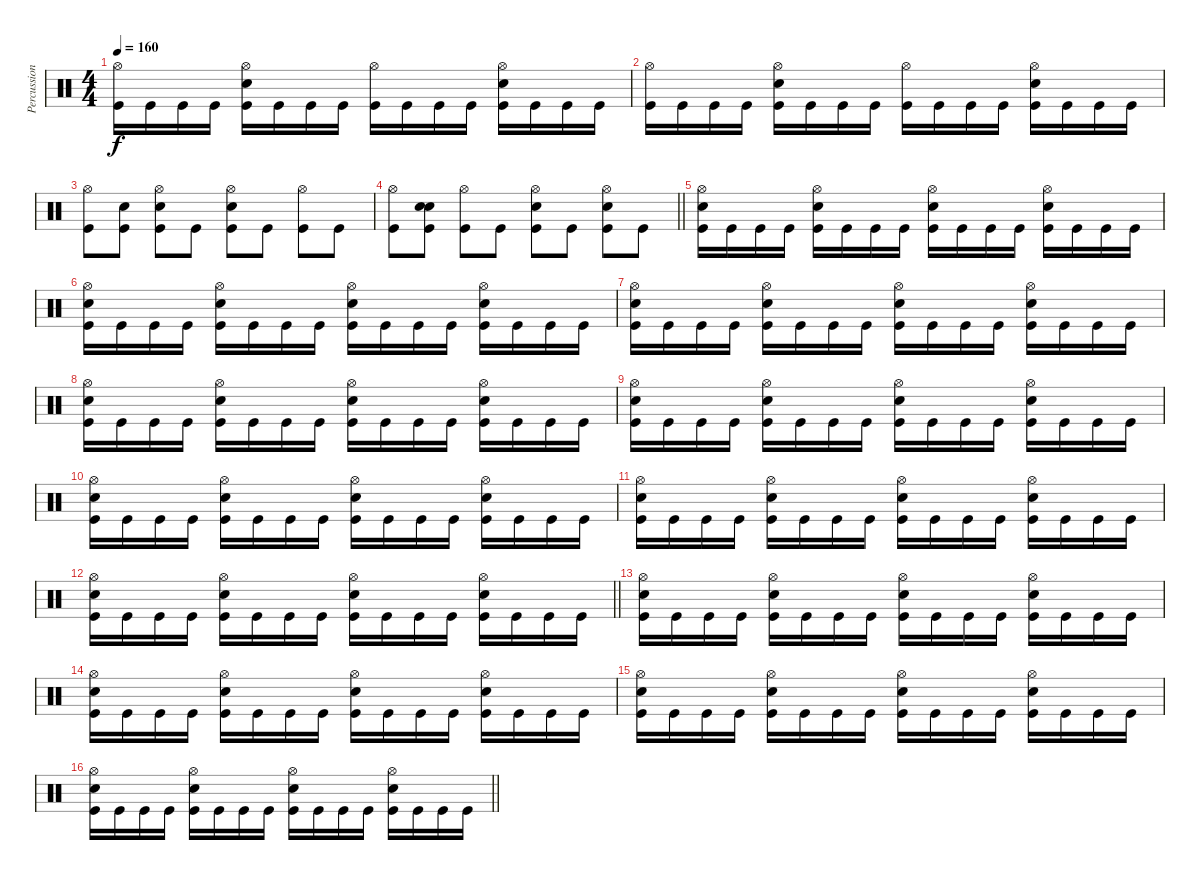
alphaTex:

\track ("Percussion" "Percussion") {instrument percussion}
\staff {score}
\articulation defaults
\ts (4 4)
\tempo 160
\clef neutral
\ks c
("Hi-Hat (open)" "Kick (hit)").16{dy f} "Kick (hit)".16 "Kick (hit)".16 "Kick (hit)".16 ("Hi-Hat (open)" "Snare (hit) 2" "Kick (hit)").16 "Kick (hit)".16 "Kick (hit)".16 "Kick (hit)".16 ("Hi-Hat (open)" "Kick (hit)").16 "Kick (hit)".16 "Kick (hit)".16 "Kick (hit)".16 ("Hi-Hat (open)" "Snare (hit) 2" "Kick (hit)").16 "Kick (hit)".16 "Kick (hit)".16 "Kick (hit)".16 |
("Hi-Hat (open)" "Kick (hit)").16 "Kick (hit)".16 "Kick (hit)".16 "Kick (hit)".16 ("Hi-Hat (open)" "Snare (hit) 2" "Kick (hit)").16 "Kick (hit)".16 "Kick (hit)".16 "Kick (hit)".16 ("Hi-Hat (open)" "Kick (hit)").16 "Kick (hit)".16 "Kick (hit)".16 "Kick (hit)".16 ("Hi-Hat (open)" "Snare (hit) 2" "Kick (hit)").16 "Kick (hit)".16 "Kick (hit)".16 "Kick (hit)".16 |
("Kick (hit)" "Hi-Hat (open)").8 ("Kick (hit)" "Snare (hit)").8 ("Kick (hit)" "Snare (hit) 2" "Hi-Hat (open)").8 "Kick (hit)".8 ("Kick (hit)" "Snare (hit) 2" "Hi-Hat (open)").8 "Kick (hit)".8 ("Kick (hit)" "Hi-Hat (open)").8 "Kick (hit)".8 |
\barLineRight lightlight
("Kick (hit)" "Hi-Hat (open)").8 ("Kick (hit)" "Snare (hit) 2" "Snare (hit)").8 ("Kick (hit)" "Hi-Hat (open)").8 "Kick (hit)".8 ("Kick (hit)" "Snare (hit) 2" "Hi-Hat (open)").8 "Kick (hit)".8 ("Kick (hit)" "Snare (hit) 2" "Hi-Hat (open)").8 "Kick (hit)".8 |
\section ("" "")
("Kick (hit)" "Snare (hit) 2" "Hi-Hat (open)").16 "Kick (hit)".16 "Kick (hit)".16 "Kick (hit)".16 ("Kick (hit)" "Snare (hit) 2" "Hi-Hat (open)").16 "Kick (hit)".16 "Kick (hit)".16 "Kick (hit)".16 ("Kick (hit)" "Snare (hit) 2" "Hi-Hat (open)").16 "Kick (hit)".16 "Kick (hit)".16 "Kick (hit)".16 ("Kick (hit)" "Snare (hit) 2" "Hi-Hat (open)").16 "Kick (hit)".16 "Kick (hit)".16 "Kick (hit)".16 |
("Kick (hit)" "Snare (hit) 2" "Hi-Hat (open)").16 "Kick (hit)".16 "Kick (hit)".16 "Kick (hit)".16 ("Kick (hit)" "Snare (hit) 2" "Hi-Hat (open)").16 "Kick (hit)".16 "Kick (hit)".16 "Kick (hit)".16 ("Kick (hit)" "Snare (hit) 2" "Hi-Hat (open)").16 "Kick (hit)".16 "Kick (hit)".16 "Kick (hit)".16 ("Kick (hit)" "Snare (hit) 2" "Hi-Hat (open)").16 "Kick (hit)".16 "Kick (hit)".16 "Kick (hit)".16 |
("Kick (hit)" "Snare (hit) 2" "Hi-Hat (open)").16 "Kick (hit)".16 "Kick (hit)".16 "Kick (hit)".16 ("Kick (hit)" "Snare (hit) 2" "Hi-Hat (open)").16 "Kick (hit)".16 "Kick (hit)".16 "Kick (hit)".16 ("Kick (hit)" "Snare (hit) 2" "Hi-Hat (open)").16 "Kick (hit)".16 "Kick (hit)".16 "Kick (hit)".16 ("Kick (hit)" "Snare (hit) 2" "Hi-Hat (open)").16 "Kick (hit)".16 "Kick (hit)".16 "Kick (hit)".16 |
("Kick (hit)" "Snare (hit) 2" "Hi-Hat (open)").16 "Kick (hit)".16 "Kick (hit)".16 "Kick (hit)".16 ("Kick (hit)" "Snare (hit) 2" "Hi-Hat (open)").16 "Kick (hit)".16 "Kick (hit)".16 "Kick (hit)".16 ("Kick (hit)" "Snare (hit) 2" "Hi-Hat (open)").16 "Kick (hit)".16 "Kick (hit)".16 "Kick (hit)".16 ("Kick (hit)" "Snare (hit) 2" "Hi-Hat (open)").16 "Kick (hit)".16 "Kick (hit)".16 "Kick (hit)".16 |
("Kick (hit)" "Snare (hit) 2" "Hi-Hat (open)").16 "Kick (hit)".16 "Kick (hit)".16 "Kick (hit)".16 ("Kick (hit)" "Snare (hit) 2" "Hi-Hat (open)").16 "Kick (hit)".16 "Kick (hit)".16 "Kick (hit)".16 ("Kick (hit)" "Snare (hit) 2" "Hi-Hat (open)").16 "Kick (hit)".16 "Kick (hit)".16 "Kick (hit)".16 ("Kick (hit)" "Snare (hit) 2" "Hi-Hat (open)").16 "Kick (hit)".16 "Kick (hit)".16 "Kick (hit)".16 |
("Kick (hit)" "Snare (hit) 2" "Hi-Hat (open)").16 "Kick (hit)".16 "Kick (hit)".16 "Kick (hit)".16 ("Kick (hit)" "Snare (hit) 2" "Hi-Hat (open)").16 "Kick (hit)".16 "Kick (hit)".16 "Kick (hit)".16 ("Kick (hit)" "Snare (hit) 2" "Hi-Hat (open)").16 "Kick (hit)".16 "Kick (hit)".16 "Kick (hit)".16 ("Kick (hit)" "Snare (hit) 2" "Hi-Hat (open)").16 "Kick (hit)".16 "Kick (hit)".16 "Kick (hit)".16 |
("Kick (hit)" "Snare (hit) 2" "Hi-Hat (open)").16 "Kick (hit)".16 "Kick (hit)".16 "Kick (hit)".16 ("Kick (hit)" "Snare (hit) 2" "Hi-Hat (open)").16 "Kick (hit)".16 "Kick (hit)".16 "Kick (hit)".16 ("Kick (hit)" "Snare (hit) 2" "Hi-Hat (open)").16 "Kick (hit)".16 "Kick (hit)".16 "Kick (hit)".16 ("Kick (hit)" "Snare (hit) 2" "Hi-Hat (open)").16 "Kick (hit)".16 "Kick (hit)".16 "Kick (hit)".16 |
\barLineRight lightlight
("Kick (hit)" "Snare (hit) 2" "Hi-Hat (open)").16 "Kick (hit)".16 "Kick (hit)".16 "Kick (hit)".16 ("Kick (hit)" "Snare (hit) 2" "Hi-Hat (open)").16 "Kick (hit)".16 "Kick (hit)".16 "Kick (hit)".16 ("Kick (hit)" "Snare (hit) 2" "Hi-Hat (open)").16 "Kick (hit)".16 "Kick (hit)".16 "Kick (hit)".16 ("Kick (hit)" "Snare (hit) 2" "Hi-Hat (open)").16 "Kick (hit)".16 "Kick (hit)".16 "Kick (hit)".16 |
("Kick (hit)" "Snare (hit) 2" "Hi-Hat (open)").16 "Kick (hit)".16 "Kick (hit)".16 "Kick (hit)".16 ("Kick (hit)" "Snare (hit) 2" "Hi-Hat (open)").16 "Kick (hit)".16 "Kick (hit)".16 "Kick (hit)".16 ("Kick (hit)" "Snare (hit) 2" "Hi-Hat (open)").16 "Kick (hit)".16 "Kick (hit)".16 "Kick (hit)".16 ("Kick (hit)" "Snare (hit) 2" "Hi-Hat (open)").16 "Kick (hit)".16 "Kick (hit)".16 "Kick (hit)".16 |
("Kick (hit)" "Snare (hit) 2" "Hi-Hat (open)").16 "Kick (hit)".16 "Kick (hit)".16 "Kick (hit)".16 ("Kick (hit)" "Snare (hit) 2" "Hi-Hat (open)").16 "Kick (hit)".16 "Kick (hit)".16 "Kick (hit)".16 ("Kick (hit)" "Snare (hit) 2" "Hi-Hat (open)").16 "Kick (hit)".16 "Kick (hit)".16 "Kick (hit)".16 ("Kick (hit)" "Snare (hit) 2" "Hi-Hat (open)").16 "Kick (hit)".16 "Kick (hit)".16 "Kick (hit)".16 |
("Kick (hit)" "Snare (hit) 2" "Hi-Hat (open)").16 "Kick (hit)".16 "Kick (hit)".16 "Kick (hit)".16 ("Kick (hit)" "Snare (hit) 2" "Hi-Hat (open)").16 "Kick (hit)".16 "Kick (hit)".16 "Kick (hit)".16 ("Kick (hit)" "Snare (hit) 2" "Hi-Hat (open)").16 "Kick (hit)".16 "Kick (hit)".16 "Kick (hit)".16 ("Kick (hit)" "Snare (hit) 2" "Hi-Hat (open)").16 "Kick (hit)".16 "Kick (hit)".16 "Kick (hit)".16 |
\barLineRight lightlight
("Kick (hit)" "Snare (hit) 2" "Hi-Hat (open)").16 "Kick (hit)".16 "Kick (hit)".16 "Kick (hit)".16 ("Kick (hit)" "Snare (hit) 2" "Hi-Hat (open)").16 "Kick (hit)".16 "Kick (hit)".16 "Kick (hit)".16 ("Kick (hit)" "Snare (hit) 2" "Hi-Hat (open)").16 "Kick (hit)".16 "Kick (hit)".16 "Kick (hit)".16 ("Kick (hit)" "Snare (hit) 2" "Hi-Hat (open)").16 "Kick (hit)".16 "Kick (hit)".16 "Kick (hit)".16
